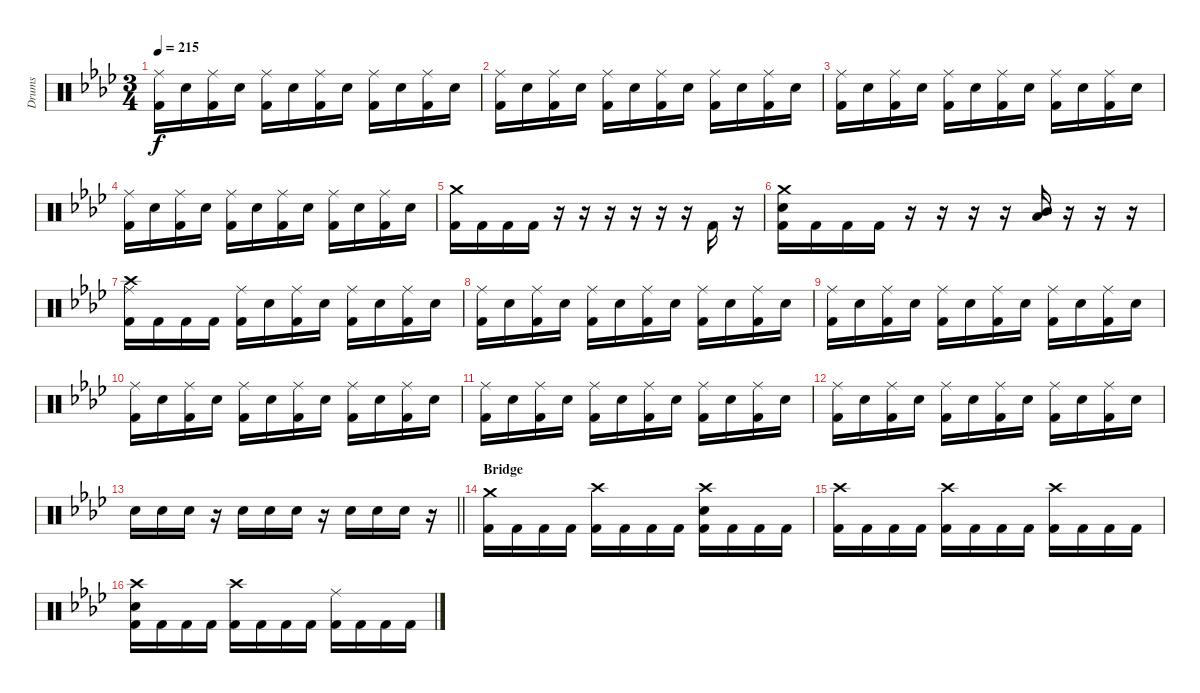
\bracketExtendMode groupsimilarinstruments
\otherSystemsTrackNameOrientation horizontal
\track ("Guyot Begin-Benoit" "Drums") {instrument percussion}
\staff {score}
\articulation defaults
\ts (3 4)
\tempo 215
\clef neutral
\ks ab
("Ride (middle)"{acc forcenatural} "Kick (hit) 2"{acc forcenatural}).16{dy f beam Down} "Snare (hit) 2"{acc forcenatural}.16{beam Down} ("Ride (middle)"{acc forcenatural} "Kick (hit) 2"{acc forcenatural}).16{beam Down} "Snare (hit) 2"{acc forcenatural}.16{beam Down} ("Ride (middle)"{acc forcenatural} "Kick (hit) 2"{acc forcenatural}).16{beam Down} "Snare (hit) 2"{acc forcenatural}.16{beam Down} ("Ride (middle)"{acc forcenatural} "Kick (hit) 2"{acc forcenatural}).16{beam Down} "Snare (hit) 2"{acc forcenatural}.16{beam Down} ("Ride (middle)"{acc forcenatural} "Kick (hit) 2"{acc forcenatural}).16{beam Down} "Snare (hit) 2"{acc forcenatural}.16{beam Down} ("Ride (middle)"{acc forcenatural} "Kick (hit) 2"{acc forcenatural}).16{beam Down} "Snare (hit) 2"{acc forcenatural}.16{beam Down} |
("Ride (middle)"{acc forcenatural} "Kick (hit) 2"{acc forcenatural}).16{beam Down} "Snare (hit) 2"{acc forcenatural}.16{beam Down} ("Ride (middle)"{acc forcenatural} "Kick (hit) 2"{acc forcenatural}).16{beam Down} "Snare (hit) 2"{acc forcenatural}.16{beam Down} ("Ride (middle)"{acc forcenatural} "Kick (hit) 2"{acc forcenatural}).16{beam Down} "Snare (hit) 2"{acc forcenatural}.16{beam Down} ("Ride (middle)"{acc forcenatural} "Kick (hit) 2"{acc forcenatural}).16{beam Down} "Snare (hit) 2"{acc forcenatural}.16{beam Down} ("Ride (middle)"{acc forcenatural} "Kick (hit) 2"{acc forcenatural}).16{beam Down} "Snare (hit) 2"{acc forcenatural}.16{beam Down} ("Ride (middle)"{acc forcenatural} "Kick (hit) 2"{acc forcenatural}).16{beam Down} "Snare (hit) 2"{acc forcenatural}.16{beam Down} |
("Ride (middle)"{acc forcenatural} "Kick (hit) 2"{acc forcenatural}).16{beam Down} "Snare (hit) 2"{acc forcenatural}.16{beam Down} ("Ride (middle)"{acc forcenatural} "Kick (hit) 2"{acc forcenatural}).16{beam Down} "Snare (hit) 2"{acc forcenatural}.16{beam Down} ("Ride (middle)"{acc forcenatural} "Kick (hit) 2"{acc forcenatural}).16{beam Down} "Snare (hit) 2"{acc forcenatural}.16{beam Down} ("Ride (middle)"{acc forcenatural} "Kick (hit) 2"{acc forcenatural}).16{beam Down} "Snare (hit) 2"{acc forcenatural}.16{beam Down} ("Ride (middle)"{acc forcenatural} "Kick (hit) 2"{acc forcenatural}).16{beam Down} "Snare (hit) 2"{acc forcenatural}.16{beam Down} ("Ride (middle)"{acc forcenatural} "Kick (hit) 2"{acc forcenatural}).16{beam Down} "Snare (hit) 2"{acc forcenatural}.16{beam Down} |
("Ride (middle)"{acc forcenatural} "Kick (hit) 2"{acc forcenatural}).16{beam Down} "Snare (hit) 2"{acc forcenatural}.16{beam Down} ("Ride (middle)"{acc forcenatural} "Kick (hit) 2"{acc forcenatural}).16{beam Down} "Snare (hit) 2"{acc forcenatural}.16{beam Down} ("Ride (middle)"{acc forcenatural} "Kick (hit) 2"{acc forcenatural}).16{beam Down} "Snare (hit) 2"{acc forcenatural}.16{beam Down} ("Ride (middle)"{acc forcenatural} "Kick (hit) 2"{acc forcenatural}).16{beam Down} "Snare (hit) 2"{acc forcenatural}.16{beam Down} ("Ride (middle)"{acc forcenatural} "Kick (hit) 2"{acc forcenatural}).16{beam Down} "Snare (hit) 2"{acc forcenatural}.16{beam Down} ("Ride (middle)"{acc forcenatural} "Kick (hit) 2"{acc forcenatural}).16{beam Down} "Snare (hit) 2"{acc forcenatural}.16{beam Down} |
("Crash medium (hit)"{acc forcenatural} "Kick (hit) 2"{acc forcenatural}).16{beam Down} "Kick (hit) 2"{acc forcenatural}.16{beam Down} "Kick (hit) 2"{acc forcenatural}.16{beam Down} "Kick (hit) 2"{acc forcenatural}.16{beam Down} r.16{beam Down} r.16{beam Down} r.16{beam Down} r.16{beam Down} r.16{beam Down} r.16{beam Down} "Kick (hit) 2"{acc forcenatural}.16{beam Up} r.16{beam Up} |
("Crash medium (hit)"{acc forcenatural} "Snare (hit) 2"{acc forcenatural} "Kick (hit) 2"{acc forcenatural}).16{beam Down} "Kick (hit) 2"{acc forcenatural}.16{beam Down} "Kick (hit) 2"{acc forcenatural}.16{beam Down} "Kick (hit) 2"{acc forcenatural}.16{beam Down} r.16{beam Down} r.16{beam Down} r.16{beam Down} r.16{beam Down} ("Mid Tom (hit)"{acc forcenatural} "Low Tom (hit)"{acc forcenatural}).16{beam Up} r.16{beam Up} r.16{beam Up} r.16{beam Up} |
("Ride (middle)"{acc forcenatural} "Crash high (hit)"{acc forcenatural} "Kick (hit) 2"{acc forcenatural}).16{beam Down} "Kick (hit) 2"{acc forcenatural}.16{beam Down} "Kick (hit) 2"{acc forcenatural}.16{beam Down} "Kick (hit) 2"{acc forcenatural}.16{beam Down} ("Ride (middle)"{acc forcenatural} "Kick (hit) 2"{acc forcenatural}).16{beam Down} "Snare (hit) 2"{acc forcenatural}.16{beam Down} ("Ride (middle)"{acc forcenatural} "Kick (hit) 2"{acc forcenatural}).16{beam Down} "Snare (hit) 2"{acc forcenatural}.16{beam Down} ("Ride (middle)"{acc forcenatural} "Kick (hit) 2"{acc forcenatural}).16{beam Down} "Snare (hit) 2"{acc forcenatural}.16{beam Down} ("Ride (middle)"{acc forcenatural} "Kick (hit) 2"{acc forcenatural}).16{beam Down} "Snare (hit) 2"{acc forcenatural}.16{beam Down} |
("Ride (middle)"{acc forcenatural} "Kick (hit) 2"{acc forcenatural}).16{beam Down} "Snare (hit) 2"{acc forcenatural}.16{beam Down} ("Ride (middle)"{acc forcenatural} "Kick (hit) 2"{acc forcenatural}).16{beam Down} "Snare (hit) 2"{acc forcenatural}.16{beam Down} ("Ride (middle)"{acc forcenatural} "Kick (hit) 2"{acc forcenatural}).16{beam Down} "Snare (hit) 2"{acc forcenatural}.16{beam Down} ("Ride (middle)"{acc forcenatural} "Kick (hit) 2"{acc forcenatural}).16{beam Down} "Snare (hit) 2"{acc forcenatural}.16{beam Down} ("Ride (middle)"{acc forcenatural} "Kick (hit) 2"{acc forcenatural}).16{beam Down} "Snare (hit) 2"{acc forcenatural}.16{beam Down} ("Ride (middle)"{acc forcenatural} "Kick (hit) 2"{acc forcenatural}).16{beam Down} "Snare (hit) 2"{acc forcenatural}.16{beam Down} |
("Ride (middle)"{acc forcenatural} "Kick (hit) 2"{acc forcenatural}).16{beam Down} "Snare (hit) 2"{acc forcenatural}.16{beam Down} ("Ride (middle)"{acc forcenatural} "Kick (hit) 2"{acc forcenatural}).16{beam Down} "Snare (hit) 2"{acc forcenatural}.16{beam Down} ("Ride (middle)"{acc forcenatural} "Kick (hit) 2"{acc forcenatural}).16{beam Down} "Snare (hit) 2"{acc forcenatural}.16{beam Down} ("Ride (middle)"{acc forcenatural} "Kick (hit) 2"{acc forcenatural}).16{beam Down} "Snare (hit) 2"{acc forcenatural}.16{beam Down} ("Ride (middle)"{acc forcenatural} "Kick (hit) 2"{acc forcenatural}).16{beam Down} "Snare (hit) 2"{acc forcenatural}.16{beam Down} ("Ride (middle)"{acc forcenatural} "Kick (hit) 2"{acc forcenatural}).16{beam Down} "Snare (hit) 2"{acc forcenatural}.16{beam Down} |
("Ride (middle)"{acc forcenatural} "Kick (hit) 2"{acc forcenatural}).16{beam Down} "Snare (hit) 2"{acc forcenatural}.16{beam Down} ("Ride (middle)"{acc forcenatural} "Kick (hit) 2"{acc forcenatural}).16{beam Down} "Snare (hit) 2"{acc forcenatural}.16{beam Down} ("Ride (middle)"{acc forcenatural} "Kick (hit) 2"{acc forcenatural}).16{beam Down} "Snare (hit) 2"{acc forcenatural}.16{beam Down} ("Ride (middle)"{acc forcenatural} "Kick (hit) 2"{acc forcenatural}).16{beam Down} "Snare (hit) 2"{acc forcenatural}.16{beam Down} ("Ride (middle)"{acc forcenatural} "Kick (hit) 2"{acc forcenatural}).16{beam Down} "Snare (hit) 2"{acc forcenatural}.16{beam Down} ("Ride (middle)"{acc forcenatural} "Kick (hit) 2"{acc forcenatural}).16{beam Down} "Snare (hit) 2"{acc forcenatural}.16{beam Down} |
("Ride (middle)"{acc forcenatural} "Kick (hit) 2"{acc forcenatural}).16{beam Down} "Snare (hit) 2"{acc forcenatural}.16{beam Down} ("Ride (middle)"{acc forcenatural} "Kick (hit) 2"{acc forcenatural}).16{beam Down} "Snare (hit) 2"{acc forcenatural}.16{beam Down} ("Ride (middle)"{acc forcenatural} "Kick (hit) 2"{acc forcenatural}).16{beam Down} "Snare (hit) 2"{acc forcenatural}.16{beam Down} ("Ride (middle)"{acc forcenatural} "Kick (hit) 2"{acc forcenatural}).16{beam Down} "Snare (hit) 2"{acc forcenatural}.16{beam Down} ("Ride (middle)"{acc forcenatural} "Kick (hit) 2"{acc forcenatural}).16{beam Down} "Snare (hit) 2"{acc forcenatural}.16{beam Down} ("Ride (middle)"{acc forcenatural} "Kick (hit) 2"{acc forcenatural}).16{beam Down} "Snare (hit) 2"{acc forcenatural}.16{beam Down} |
("Ride (middle)"{acc forcenatural} "Kick (hit) 2"{acc forcenatural}).16{beam Down} "Snare (hit) 2"{acc forcenatural}.16{beam Down} ("Ride (middle)"{acc forcenatural} "Kick (hit) 2"{acc forcenatural}).16{beam Down} "Snare (hit) 2"{acc forcenatural}.16{beam Down} ("Ride (middle)"{acc forcenatural} "Kick (hit) 2"{acc forcenatural}).16{beam Down} "Snare (hit) 2"{acc forcenatural}.16{beam Down} ("Ride (middle)"{acc forcenatural} "Kick (hit) 2"{acc forcenatural}).16{beam Down} "Snare (hit) 2"{acc forcenatural}.16{beam Down} ("Ride (middle)"{acc forcenatural} "Kick (hit) 2"{acc forcenatural}).16{beam Down} "Snare (hit) 2"{acc forcenatural}.16{beam Down} ("Ride (middle)"{acc forcenatural} "Kick (hit) 2"{acc forcenatural}).16{beam Down} "Snare (hit) 2"{acc forcenatural}.16{beam Down} |
\barLineRight lightlight "Snare (hit) 2"{acc forcenatural}.16{beam Down} "Snare (hit) 2"{acc forcenatural}.16{beam Down} "Snare (hit) 2"{acc forcenatural}.16{beam Down}
r.16{beam Down} "Snare (hit) 2"{acc forcenatural}.16{beam Down} "Snare (hit) 2"{acc forcenatural}.16{beam Down} "Snare (hit) 2"{acc forcenatural}.16{beam Down} r.16{beam Down} "Snare (hit) 2"{acc forcenatural}.16{beam Down} "Snare (hit) 2"{acc forcenatural}.16{beam Down} "Snare (hit) 2"{acc forcenatural}.16{beam Down} r.16{beam Down} |
\section ("" "Bridge")
("Crash medium (hit)"{acc forcenatural} "Kick (hit) 2"{acc forcenatural}).16{beam Down} "Kick (hit) 2"{acc forcenatural}.16{beam Down} "Kick (hit) 2"{acc forcenatural}.16{beam Down} "Kick (hit) 2"{acc forcenatural}.16{beam Down} ("Crash high (hit)"{acc forcenatural} "Kick (hit) 2"{acc forcenatural}).16{beam Down} "Kick (hit) 2"{acc forcenatural}.16{beam Down} "Kick (hit) 2"{acc forcenatural}.16{beam Down} "Kick (hit) 2"{acc forcenatural}.16{beam Down} ("Crash high (hit)"{acc forcenatural} "Snare (hit) 2"{acc forcenatural} "Kick (hit) 2"{acc forcenatural}).16{beam Down} "Kick (hit) 2"{acc forcenatural}.16{beam Down} "Kick (hit) 2"{acc forcenatural}.16{beam Down} "Kick (hit) 2"{acc forcenatural}.16{beam Down} |
("Crash high (hit)"{acc forcenatural} "Kick (hit) 2"{acc forcenatural}).16{beam Down} "Kick (hit) 2"{acc forcenatural}.16{beam Down} "Kick (hit) 2"{acc forcenatural}.16{beam Down} "Kick (hit) 2"{acc forcenatural}.16{beam Down} ("Crash high (hit)"{acc forcenatural} "Kick (hit) 2"{acc forcenatural}).16{beam Down} "Kick (hit) 2"{acc forcenatural}.16{beam Down} "Kick (hit) 2"{acc forcenatural}.16{beam Down} "Kick (hit) 2"{acc forcenatural}.16{beam Down} ("Crash high (hit)"{acc forcenatural} "Kick (hit) 2"{acc forcenatural}).16{beam Down} "Kick (hit) 2"{acc forcenatural}.16{beam Down} "Kick (hit) 2"{acc forcenatural}.16{beam Down} "Kick (hit) 2"{acc forcenatural}.16{beam Down} |
("Crash high (hit)"{acc forcenatural} "Snare (hit) 2"{acc forcenatural} "Kick (hit) 2"{acc forcenatural}).16{beam Down} "Kick (hit) 2"{acc forcenatural}.16{beam Down} "Kick (hit) 2"{acc forcenatural}.16{beam Down} "Kick (hit) 2"{acc forcenatural}.16{beam Down} ("Crash high (hit)"{acc forcenatural} "Kick (hit) 2"{acc forcenatural}).16{beam Down} "Kick (hit) 2"{acc forcenatural}.16{beam Down} "Kick (hit) 2"{acc forcenatural}.16{beam Down} "Kick (hit) 2"{acc forcenatural}.16{beam Down} ("Ride (middle)"{acc forcenatural} "Kick (hit) 2"{acc forcenatural}).16{beam Down} "Kick (hit) 2"{acc forcenatural}.16{beam Down} "Kick (hit) 2"{acc forcenatural}.16{beam Down} "Kick (hit) 2"{acc forcenatural}.16{beam Down}
